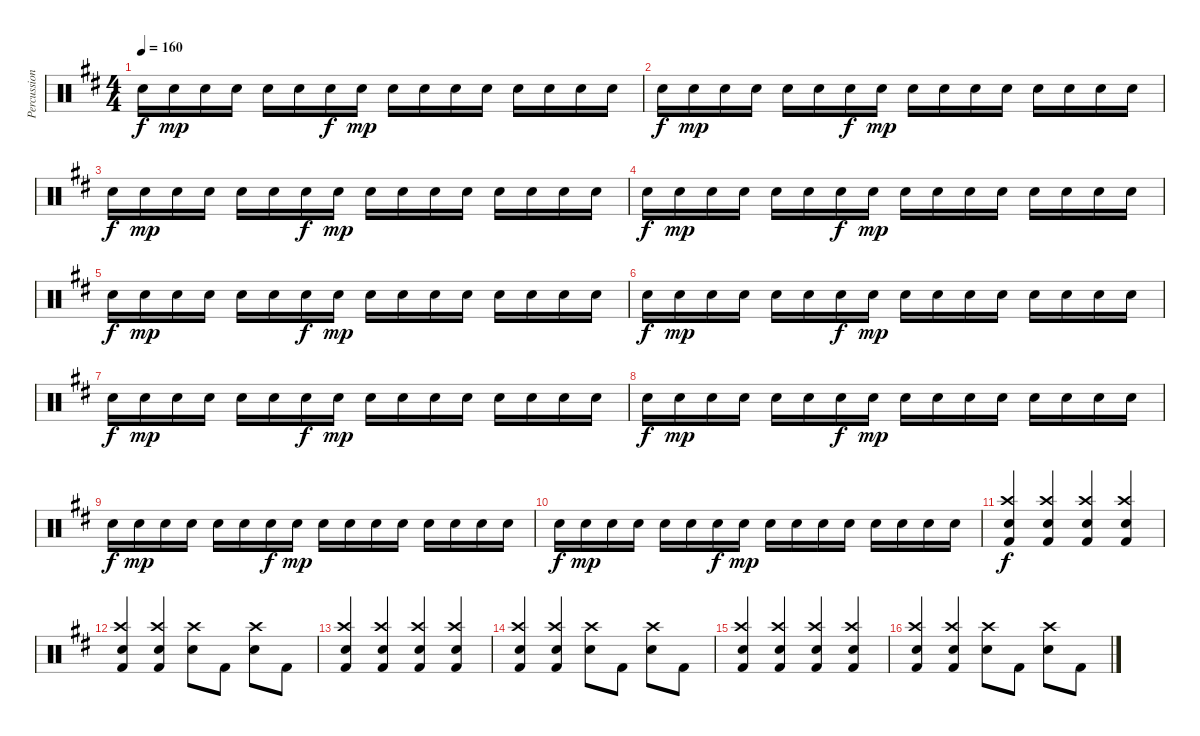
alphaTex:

\track ("Percussion" "Percussion") {instrument percussion}
\staff {score}
\articulation defaults
\ts (4 4)
\tempo 160
\clef neutral
\ks d "Electric Snare (hit)".16{dy f} "Electric Snare (hit)".16{dy mp} "Electric Snare (hit)".16 "Electric Snare (hit)".16 "Electric Snare (hit)".16 "Electric Snare (hit)".16 "Electric Snare (hit)".16{dy f} "Electric Snare (hit)".16{dy mp} "Electric Snare (hit)".16 "Electric Snare (hit)".16 "Electric Snare (hit)".16 "Electric Snare (hit)".16 "Electric Snare (hit)".16 "Electric Snare (hit)".16 "Electric Snare (hit)".16 "Electric Snare (hit)".16
|
"Electric Snare (hit)".16{dy f} "Electric Snare (hit)".16{dy mp} "Electric Snare (hit)".16 "Electric Snare (hit)".16 "Electric Snare (hit)".16 "Electric Snare (hit)".16 "Electric Snare (hit)".16{dy f} "Electric Snare (hit)".16{dy mp} "Electric Snare (hit)".16 "Electric Snare (hit)".16 "Electric Snare (hit)".16 "Electric Snare (hit)".16 "Electric Snare (hit)".16 "Electric Snare (hit)".16 "Electric Snare (hit)".16 "Electric Snare (hit)".16 |
"Electric Snare (hit)".16{dy f} "Electric Snare (hit)".16{dy mp} "Electric Snare (hit)".16 "Electric Snare (hit)".16 "Electric Snare (hit)".16 "Electric Snare (hit)".16 "Electric Snare (hit)".16{dy f} "Electric Snare (hit)".16{dy mp} "Electric Snare (hit)".16 "Electric Snare (hit)".16 "Electric Snare (hit)".16 "Electric Snare (hit)".16 "Electric Snare (hit)".16 "Electric Snare (hit)".16 "Electric Snare (hit)".16 "Electric Snare (hit)".16 |
"Electric Snare (hit)".16{dy f} "Electric Snare (hit)".16{dy mp} "Electric Snare (hit)".16 "Electric Snare (hit)".16 "Electric Snare (hit)".16 "Electric Snare (hit)".16 "Electric Snare (hit)".16{dy f} "Electric Snare (hit)".16{dy mp} "Electric Snare (hit)".16 "Electric Snare (hit)".16 "Electric Snare (hit)".16 "Electric Snare (hit)".16 "Electric Snare (hit)".16 "Electric Snare (hit)".16 "Electric Snare (hit)".16 "Electric Snare (hit)".16 |
"Electric Snare (hit)".16{dy f} "Electric Snare (hit)".16{dy mp} "Electric Snare (hit)".16 "Electric Snare (hit)".16 "Electric Snare (hit)".16 "Electric Snare (hit)".16 "Electric Snare (hit)".16{dy f} "Electric Snare (hit)".16{dy mp} "Electric Snare (hit)".16 "Electric Snare (hit)".16 "Electric Snare (hit)".16 "Electric Snare (hit)".16 "Electric Snare (hit)".16 "Electric Snare (hit)".16 "Electric Snare (hit)".16 "Electric Snare (hit)".16 |
"Electric Snare (hit)".16{dy f} "Electric Snare (hit)".16{dy mp} "Electric Snare (hit)".16 "Electric Snare (hit)".16 "Electric Snare (hit)".16 "Electric Snare (hit)".16 "Electric Snare (hit)".16{dy f} "Electric Snare (hit)".16{dy mp} "Electric Snare (hit)".16 "Electric Snare (hit)".16 "Electric Snare (hit)".16 "Electric Snare (hit)".16 "Electric Snare (hit)".16 "Electric Snare (hit)".16 "Electric Snare (hit)".16 "Electric Snare (hit)".16 |
"Electric Snare (hit)".16{dy f} "Electric Snare (hit)".16{dy mp} "Electric Snare (hit)".16 "Electric Snare (hit)".16 "Electric Snare (hit)".16 "Electric Snare (hit)".16 "Electric Snare (hit)".16{dy f} "Electric Snare (hit)".16{dy mp} "Electric Snare (hit)".16 "Electric Snare (hit)".16 "Electric Snare (hit)".16 "Electric Snare (hit)".16 "Electric Snare (hit)".16 "Electric Snare (hit)".16 "Electric Snare (hit)".16 "Electric Snare (hit)".16 |
"Electric Snare (hit)".16{dy f} "Electric Snare (hit)".16{dy mp} "Electric Snare (hit)".16 "Electric Snare (hit)".16 "Electric Snare (hit)".16 "Electric Snare (hit)".16 "Electric Snare (hit)".16{dy f} "Electric Snare (hit)".16{dy mp} "Electric Snare (hit)".16 "Electric Snare (hit)".16 "Electric Snare (hit)".16 "Electric Snare (hit)".16 "Electric Snare (hit)".16 "Electric Snare (hit)".16 "Electric Snare (hit)".16 "Electric Snare (hit)".16 |
"Electric Snare (hit)".16{dy f} "Electric Snare (hit)".16{dy mp} "Electric Snare (hit)".16 "Electric Snare (hit)".16 "Electric Snare (hit)".16 "Electric Snare (hit)".16 "Electric Snare (hit)".16{dy f} "Electric Snare (hit)".16{dy mp} "Electric Snare (hit)".16 "Electric Snare (hit)".16 "Electric Snare (hit)".16 "Electric Snare (hit)".16 "Electric Snare (hit)".16 "Electric Snare (hit)".16 "Electric Snare (hit)".16 "Electric Snare (hit)".16 |
"Electric Snare (hit)".16{dy f} "Electric Snare (hit)".16{dy mp} "Electric Snare (hit)".16 "Electric Snare (hit)".16 "Electric Snare (hit)".16 "Electric Snare (hit)".16 "Electric Snare (hit)".16{dy f} "Electric Snare (hit)".16{dy mp} "Electric Snare (hit)".16 "Electric Snare (hit)".16 "Electric Snare (hit)".16 "Electric Snare (hit)".16 "Electric Snare (hit)".16 "Electric Snare (hit)".16 "Electric Snare (hit)".16 "Electric Snare (hit)".16 |
("Crash high (hit)" "Electric Snare (hit)" "Kick (hit) 2").4{dy f} ("Crash high (hit)" "Electric Snare (hit)" "Kick (hit) 2").4 ("Crash high (hit)" "Electric Snare (hit)" "Kick (hit) 2").4 ("Crash high (hit)" "Electric Snare (hit)" "Kick (hit) 2").4 |
("Crash high (hit)" "Electric Snare (hit)" "Kick (hit) 2").4 ("Crash high (hit)" "Electric Snare (hit)" "Kick (hit) 2").4 ("Crash high (hit)" "Electric Snare (hit)").8 "Kick (hit) 2".8 ("Crash high (hit)" "Electric Snare (hit)").8 "Kick (hit) 2".8 |
("Crash high (hit)" "Electric Snare (hit)" "Kick (hit) 2").4 ("Crash high (hit)" "Electric Snare (hit)" "Kick (hit) 2").4 ("Crash high (hit)" "Electric Snare (hit)" "Kick (hit) 2").4 ("Crash high (hit)" "Electric Snare (hit)" "Kick (hit) 2").4 |
("Crash high (hit)" "Electric Snare (hit)" "Kick (hit) 2").4 ("Crash high (hit)" "Electric Snare (hit)" "Kick (hit) 2").4 ("Crash high (hit)" "Electric Snare (hit)").8 "Kick (hit) 2".8 ("Crash high (hit)" "Electric Snare (hit)").8 "Kick (hit) 2".8 |
("Crash high (hit)" "Electric Snare (hit)" "Kick (hit) 2").4 ("Crash high (hit)" "Electric Snare (hit)" "Kick (hit) 2").4 ("Crash high (hit)" "Electric Snare (hit)" "Kick (hit) 2").4 ("Crash high (hit)" "Electric Snare (hit)" "Kick (hit) 2").4 |
("Crash high (hit)" "Electric Snare (hit)" "Kick (hit) 2").4 ("Crash high (hit)" "Electric Snare (hit)" "Kick (hit) 2").4 ("Crash high (hit)" "Electric Snare (hit)").8 "Kick (hit) 2".8 ("Crash high (hit)" "Electric Snare (hit)").8 "Kick (hit) 2".8
